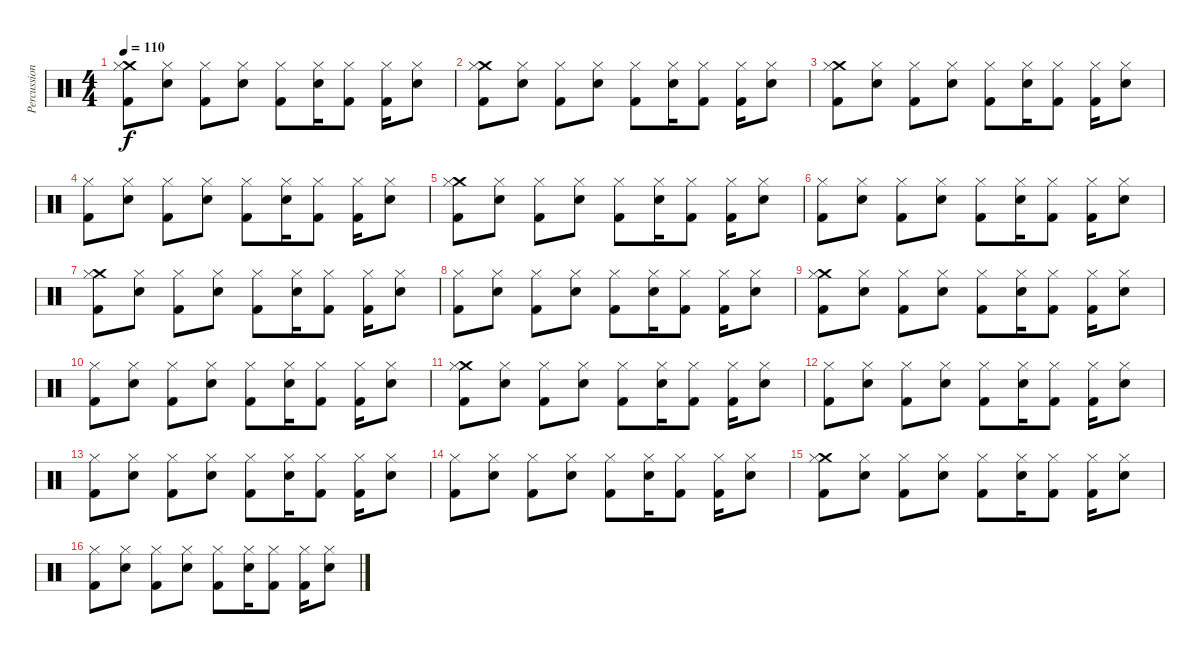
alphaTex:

\track ("Percussion" "Percussion") {instrument percussion}
\staff {score}
\articulation defaults
\ts (4 4)
\tempo 110
\clef neutral
\ks c
("Crash medium (hit)" "Hi-Hat (closed)" "Kick (hit) 2").8{dy f} ("Hi-Hat (closed)" "Electric Snare (hit)").8 ("Hi-Hat (closed)" "Kick (hit) 2").8 ("Hi-Hat (closed)" "Electric Snare (hit)").8 ("Hi-Hat (closed)" "Kick (hit) 2").8 ("Hi-Hat (closed)" "Electric Snare (hit)").16 ("Hi-Hat (closed)" "Kick (hit) 2").8 ("Hi-Hat (closed)" "Kick (hit) 2").16 ("Hi-Hat (closed)" "Electric Snare (hit)").8 |
("Crash medium (hit)" "Hi-Hat (closed)" "Kick (hit) 2").8 ("Hi-Hat (closed)" "Electric Snare (hit)").8 ("Hi-Hat (closed)" "Kick (hit) 2").8 ("Hi-Hat (closed)" "Electric Snare (hit)").8 ("Hi-Hat (closed)" "Kick (hit) 2").8 ("Hi-Hat (closed)" "Electric Snare (hit)").16 ("Hi-Hat (closed)" "Kick (hit) 2").8 ("Hi-Hat (closed)" "Kick (hit) 2").16 ("Hi-Hat (closed)" "Electric Snare (hit)").8 |
("Crash medium (hit)" "Hi-Hat (closed)" "Kick (hit) 2").8 ("Hi-Hat (closed)" "Electric Snare (hit)").8 ("Hi-Hat (closed)" "Kick (hit) 2").8 ("Hi-Hat (closed)" "Electric Snare (hit)").8 ("Hi-Hat (closed)" "Kick (hit) 2").8 ("Hi-Hat (closed)" "Electric Snare (hit)").16 ("Hi-Hat (closed)" "Kick (hit) 2").8 ("Hi-Hat (closed)" "Kick (hit) 2").16 ("Hi-Hat (closed)" "Electric Snare (hit)").8 |
("Hi-Hat (closed)" "Kick (hit) 2").8 ("Hi-Hat (closed)" "Electric Snare (hit)").8 ("Hi-Hat (closed)" "Kick (hit) 2").8 ("Hi-Hat (closed)" "Electric Snare (hit)").8 ("Hi-Hat (closed)" "Kick (hit) 2").8 ("Hi-Hat (closed)" "Electric Snare (hit)").16 ("Hi-Hat (closed)" "Kick (hit) 2").8 ("Hi-Hat (closed)" "Kick (hit) 2").16 ("Hi-Hat (closed)" "Electric Snare (hit)").8 |
("Crash medium (hit)" "Hi-Hat (closed)" "Kick (hit) 2").8 ("Hi-Hat (closed)" "Electric Snare (hit)").8 ("Hi-Hat (closed)" "Kick (hit) 2").8 ("Hi-Hat (closed)" "Electric Snare (hit)").8 ("Hi-Hat (closed)" "Kick (hit) 2").8 ("Hi-Hat (closed)" "Electric Snare (hit)").16 ("Hi-Hat (closed)" "Kick (hit) 2").8 ("Hi-Hat (closed)" "Kick (hit) 2").16 ("Hi-Hat (closed)" "Electric Snare (hit)").8 |
("Hi-Hat (closed)" "Kick (hit) 2").8 ("Hi-Hat (closed)" "Electric Snare (hit)").8 ("Hi-Hat (closed)" "Kick (hit) 2").8 ("Hi-Hat (closed)" "Electric Snare (hit)").8 ("Hi-Hat (closed)" "Kick (hit) 2").8 ("Hi-Hat (closed)" "Electric Snare (hit)").16 ("Hi-Hat (closed)" "Kick (hit) 2").8 ("Hi-Hat (closed)" "Kick (hit) 2").16 ("Hi-Hat (closed)" "Electric Snare (hit)").8 |
("Crash medium (hit)" "Hi-Hat (closed)" "Kick (hit) 2").8 ("Hi-Hat (closed)" "Electric Snare (hit)").8 ("Hi-Hat (closed)" "Kick (hit) 2").8 ("Hi-Hat (closed)" "Electric Snare (hit)").8 ("Hi-Hat (closed)" "Kick (hit) 2").8 ("Hi-Hat (closed)" "Electric Snare (hit)").16 ("Hi-Hat (closed)" "Kick (hit) 2").8 ("Hi-Hat (closed)" "Kick (hit) 2").16 ("Hi-Hat (closed)" "Electric Snare (hit)").8 |
("Hi-Hat (closed)" "Kick (hit) 2").8 ("Hi-Hat (closed)" "Electric Snare (hit)").8 ("Hi-Hat (closed)" "Kick (hit) 2").8 ("Hi-Hat (closed)" "Electric Snare (hit)").8 ("Hi-Hat (closed)" "Kick (hit) 2").8 ("Hi-Hat (closed)" "Electric Snare (hit)").16 ("Hi-Hat (closed)" "Kick (hit) 2").8 ("Hi-Hat (closed)" "Kick (hit) 2").16 ("Hi-Hat (closed)" "Electric Snare (hit)").8 |
("Crash medium (hit)" "Hi-Hat (closed)" "Kick (hit) 2").8 ("Hi-Hat (closed)" "Electric Snare (hit)").8 ("Hi-Hat (closed)" "Kick (hit) 2").8 ("Hi-Hat (closed)" "Electric Snare (hit)").8 ("Hi-Hat (closed)" "Kick (hit) 2").8 ("Hi-Hat (closed)" "Electric Snare (hit)").16 ("Hi-Hat (closed)" "Kick (hit) 2").8 ("Hi-Hat (closed)" "Kick (hit) 2").16 ("Hi-Hat (closed)" "Electric Snare (hit)").8 |
("Hi-Hat (closed)" "Kick (hit) 2").8 ("Hi-Hat (closed)" "Electric Snare (hit)").8 ("Hi-Hat (closed)" "Kick (hit) 2").8 ("Hi-Hat (closed)" "Electric Snare (hit)").8 ("Hi-Hat (closed)" "Kick (hit) 2").8 ("Hi-Hat (closed)" "Electric Snare (hit)").16 ("Hi-Hat (closed)" "Kick (hit) 2").8 ("Hi-Hat (closed)" "Kick (hit) 2").16 ("Hi-Hat (closed)" "Electric Snare (hit)").8 |
("Crash medium (hit)" "Hi-Hat (closed)" "Kick (hit) 2").8 ("Hi-Hat (closed)" "Electric Snare (hit)").8 ("Hi-Hat (closed)" "Kick (hit) 2").8 ("Hi-Hat (closed)" "Electric Snare (hit)").8 ("Hi-Hat (closed)" "Kick (hit) 2").8 ("Hi-Hat (closed)" "Electric Snare (hit)").16 ("Hi-Hat (closed)" "Kick (hit) 2").8 ("Hi-Hat (closed)" "Kick (hit) 2").16 ("Hi-Hat (closed)" "Electric Snare (hit)").8 |
("Hi-Hat (closed)" "Kick (hit) 2").8 ("Hi-Hat (closed)" "Electric Snare (hit)").8 ("Hi-Hat (closed)" "Kick (hit) 2").8 ("Hi-Hat (closed)" "Electric Snare (hit)").8 ("Hi-Hat (closed)" "Kick (hit) 2").8 ("Hi-Hat (closed)" "Electric Snare (hit)").16 ("Hi-Hat (closed)" "Kick (hit) 2").8 ("Hi-Hat (closed)" "Kick (hit) 2").16 ("Hi-Hat (closed)" "Electric Snare (hit)").8 |
("Hi-Hat (closed)" "Kick (hit) 2").8 ("Hi-Hat (closed)" "Electric Snare (hit)").8 ("Hi-Hat (closed)" "Kick (hit) 2").8 ("Hi-Hat (closed)" "Electric Snare (hit)").8 ("Hi-Hat (closed)" "Kick (hit) 2").8 ("Hi-Hat (closed)" "Electric Snare (hit)").16 ("Hi-Hat (closed)" "Kick (hit) 2").8 ("Hi-Hat (closed)" "Kick (hit) 2").16 ("Hi-Hat (closed)" "Electric Snare (hit)").8 |
("Hi-Hat (closed)" "Kick (hit) 2").8 ("Hi-Hat (closed)" "Electric Snare (hit)").8 ("Hi-Hat (closed)" "Kick (hit) 2").8 ("Hi-Hat (closed)" "Electric Snare (hit)").8 ("Hi-Hat (closed)" "Kick (hit) 2").8 ("Hi-Hat (closed)" "Electric Snare (hit)").16 ("Hi-Hat (closed)" "Kick (hit) 2").8 ("Hi-Hat (closed)" "Kick (hit) 2").16 ("Hi-Hat (closed)" "Electric Snare (hit)").8 |
("Crash medium (hit)" "Hi-Hat (closed)" "Kick (hit) 2").8 ("Hi-Hat (closed)" "Electric Snare (hit)").8 ("Hi-Hat (closed)" "Kick (hit) 2").8 ("Hi-Hat (closed)" "Electric Snare (hit)").8 ("Hi-Hat (closed)" "Kick (hit) 2").8 ("Hi-Hat (closed)" "Electric Snare (hit)").16 ("Hi-Hat (closed)" "Kick (hit) 2").8 ("Hi-Hat (closed)" "Kick (hit) 2").16 ("Hi-Hat (closed)" "Electric Snare (hit)").8 |
("Hi-Hat (closed)" "Kick (hit) 2").8 ("Hi-Hat (closed)" "Electric Snare (hit)").8 ("Hi-Hat (closed)" "Kick (hit) 2").8 ("Hi-Hat (closed)" "Electric Snare (hit)").8 ("Hi-Hat (closed)" "Kick (hit) 2").8 ("Hi-Hat (closed)" "Electric Snare (hit)").16 ("Hi-Hat (closed)" "Kick (hit) 2").8 ("Hi-Hat (closed)" "Kick (hit) 2").16 ("Hi-Hat (closed)" "Electric Snare (hit)").8
